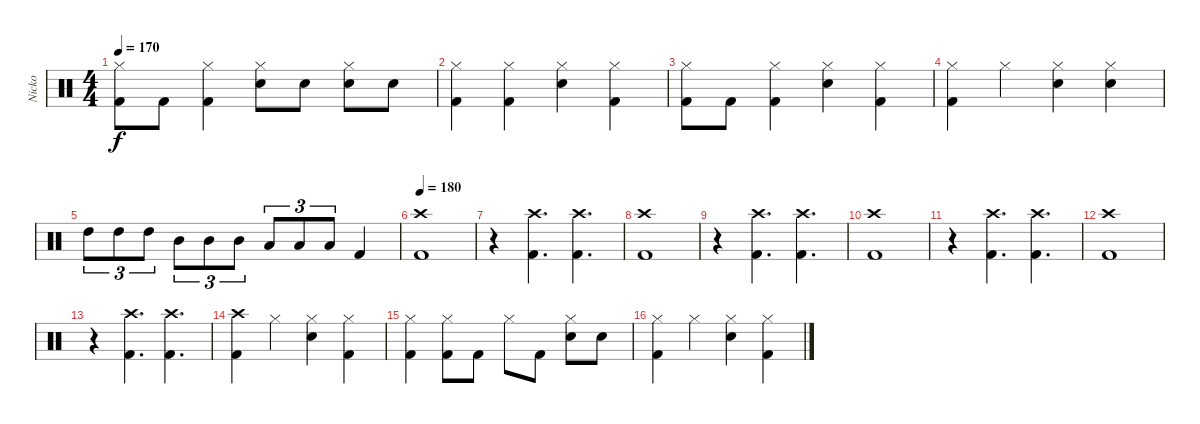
\track ("Nicko" "Nicko") {instrument percussion}
\staff {score}
\articulation defaults
\ts (4 4)
\tempo 170
\clef neutral
\ks c
("Hi-Hat (closed)" "Kick (hit) 2").8{dy f} "Kick (hit) 2".8 ("Hi-Hat (closed)" "Kick (hit) 2").4 ("Hi-Hat (closed)" "Snare (hit) 2").8 "Snare (hit) 2".8 ("Hi-Hat (closed)" "Snare (hit) 2").8 "Snare (hit) 2".8 |
("Hi-Hat (closed)" "Kick (hit) 2").4 ("Hi-Hat (closed)" "Kick (hit) 2").4 ("Hi-Hat (closed)" "Snare (hit) 2").4 ("Hi-Hat (closed)" "Kick (hit) 2").4 |
("Hi-Hat (closed)" "Kick (hit) 2").8 "Kick (hit) 2".8 ("Hi-Hat (closed)" "Kick (hit) 2").4 ("Hi-Hat (closed)" "Snare (hit) 2").4 ("Hi-Hat (closed)" "Kick (hit) 2").4 |
("Hi-Hat (closed)" "Kick (hit) 2").4 "Hi-Hat (closed)".4 ("Hi-Hat (closed)" "Snare (hit) 2").4 ("Hi-Hat (closed)" "Snare (hit) 2").4 |
"High Tom (hit)".8{tu (3 2)} "High Tom (hit)".8{tu (3 2)} "High Tom (hit)".8{tu (3 2)} "Mid Tom (hit)".8{tu (3 2)} "Mid Tom (hit)".8{tu (3 2)} "Mid Tom (hit)".8{tu (3 2)} "Low Tom (hit)".8{tu (3 2)} "Low Tom (hit)".8{tu (3 2)} "Low Tom (hit)".8{tu (3 2)} "Kick (hit) 2".4 |
\tempo 180
("Crash high (hit)" "Kick (hit) 2").1 |
r.4 ("Crash high (hit)" "Kick (hit) 2").4{d} ("Crash high (hit)" "Kick (hit) 2").4{d} |
("Crash high (hit)" "Kick (hit) 2").1 |
r.4 ("Crash high (hit)" "Kick (hit) 2").4{d} ("Crash high (hit)" "Kick (hit) 2").4{d} |
("Crash high (hit)" "Kick (hit) 2").1 |
r.4 ("Crash high (hit)" "Kick (hit) 2").4{d} ("Crash high (hit)" "Kick (hit) 2").4{d} |
("Crash high (hit)" "Kick (hit) 2").1 |
r.4 ("Crash high (hit)" "Kick (hit) 2").4{d} ("Crash high (hit)" "Kick (hit) 2").4{d} |
("Crash high (hit)" "Kick (hit) 2").4 "Hi-Hat (closed)".4 ("Hi-Hat (closed)" "Snare (hit) 2").4 ("Hi-Hat (closed)" "Kick (hit) 2").4 |
("Hi-Hat (closed)" "Kick (hit) 2").4 ("Hi-Hat (closed)" "Kick (hit) 2").8 "Kick (hit) 2".8 "Hi-Hat (closed)".8 "Kick (hit) 2".8 ("Hi-Hat (closed)" "Snare (hit) 2").8 "Snare (hit) 2".8 |
("Hi-Hat (closed)" "Kick (hit) 2").4 "Hi-Hat (closed)".4 ("Hi-Hat (closed)" "Snare (hit) 2").4 ("Hi-Hat (closed)" "Kick (hit) 2").4
